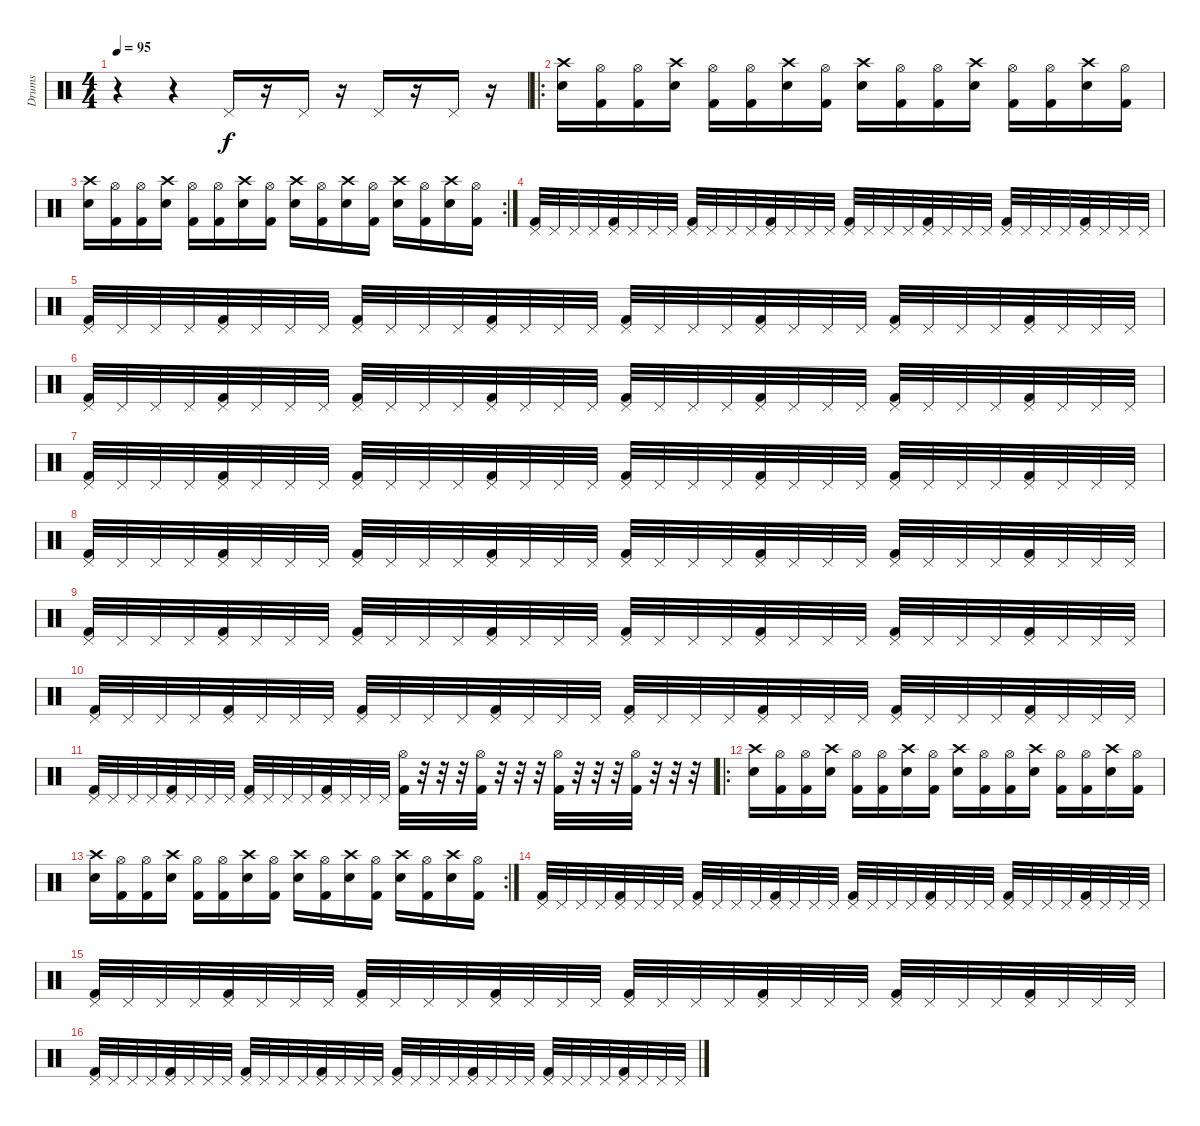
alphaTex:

\track ("Drums" "Drums") {instrument percussion}
\staff {score}
\articulation defaults
\ts (4 4)
\tempo 95
\clef neutral
\ks c
r.4{dy f} r.4 "Pedal Hi-Hat (hit)".16 r.16 "Pedal Hi-Hat (hit)".16 r.16 "Pedal Hi-Hat (hit)".16 r.16 "Pedal Hi-Hat (hit)".16 r.16 |
\ro
("Crash high (hit)" "Electric Snare (hit)").16 ("Hi-Hat (open)" "Kick (hit) 2").16 ("Hi-Hat (open)" "Kick (hit) 2").16 ("Crash high (hit)" "Electric Snare (hit)").16 ("Hi-Hat (open)" "Kick (hit) 2").16 ("Hi-Hat (open)" "Kick (hit) 2").16 ("Crash high (hit)" "Electric Snare (hit)").16 ("Hi-Hat (open)" "Kick (hit) 2").16 ("Crash high (hit)" "Electric Snare (hit)").16 ("Hi-Hat (open)" "Kick (hit) 2").16 ("Hi-Hat (open)" "Kick (hit) 2").16 ("Crash high (hit)" "Electric Snare (hit)").16 ("Hi-Hat (open)" "Kick (hit) 2").16 ("Hi-Hat (open)" "Kick (hit) 2").16 ("Crash high (hit)" "Electric Snare (hit)").16 ("Hi-Hat (open)" "Kick (hit) 2").16 |
\rc 2
("Crash high (hit)" "Electric Snare (hit)").16 ("Hi-Hat (open)" "Kick (hit) 2").16 ("Hi-Hat (open)" "Kick (hit) 2").16 ("Crash high (hit)" "Electric Snare (hit)").16 ("Hi-Hat (open)" "Kick (hit) 2").16 ("Hi-Hat (open)" "Kick (hit) 2").16 ("Crash high (hit)" "Electric Snare (hit)").16 ("Hi-Hat (open)" "Kick (hit) 2").16 ("Crash high (hit)" "Electric Snare (hit)").16 ("Hi-Hat (open)" "Kick (hit) 2").16 ("Crash high (hit)" "Electric Snare (hit)").16 ("Hi-Hat (open)" "Kick (hit) 2").16 ("Crash high (hit)" "Electric Snare (hit)").16 ("Hi-Hat (open)" "Kick (hit) 2").16 ("Crash high (hit)" "Electric Snare (hit)").16 ("Hi-Hat (open)" "Kick (hit) 2").16 |
("Pedal Hi-Hat (hit)" "Kick (hit) 2").32 "Pedal Hi-Hat (hit)".32 "Pedal Hi-Hat (hit)".32 "Pedal Hi-Hat (hit)".32 ("Pedal Hi-Hat (hit)" "Kick (hit) 2").32 "Pedal Hi-Hat (hit)".32 "Pedal Hi-Hat (hit)".32 "Pedal Hi-Hat (hit)".32 ("Pedal Hi-Hat (hit)" "Kick (hit) 2").32 "Pedal Hi-Hat (hit)".32 "Pedal Hi-Hat (hit)".32 "Pedal Hi-Hat (hit)".32 ("Pedal Hi-Hat (hit)" "Kick (hit) 2").32 "Pedal Hi-Hat (hit)".32 "Pedal Hi-Hat (hit)".32 "Pedal Hi-Hat (hit)".32 ("Pedal Hi-Hat (hit)" "Kick (hit) 2").32 "Pedal Hi-Hat (hit)".32 "Pedal Hi-Hat (hit)".32 "Pedal Hi-Hat (hit)".32 ("Pedal Hi-Hat (hit)" "Kick (hit) 2").32 "Pedal Hi-Hat (hit)".32 "Pedal Hi-Hat (hit)".32 "Pedal Hi-Hat (hit)".32 ("Pedal Hi-Hat (hit)" "Kick (hit) 2").32 "Pedal Hi-Hat (hit)".32 "Pedal Hi-Hat (hit)".32 "Pedal Hi-Hat (hit)".32 ("Pedal Hi-Hat (hit)" "Kick (hit) 2").32 "Pedal Hi-Hat (hit)".32 "Pedal Hi-Hat (hit)".32 "Pedal Hi-Hat (hit)".32 |
("Pedal Hi-Hat (hit)" "Kick (hit) 2").32 "Pedal Hi-Hat (hit)".32 "Pedal Hi-Hat (hit)".32 "Pedal Hi-Hat (hit)".32 ("Pedal Hi-Hat (hit)" "Kick (hit) 2").32 "Pedal Hi-Hat (hit)".32 "Pedal Hi-Hat (hit)".32 "Pedal Hi-Hat (hit)".32 ("Pedal Hi-Hat (hit)" "Kick (hit) 2").32 "Pedal Hi-Hat (hit)".32 "Pedal Hi-Hat (hit)".32 "Pedal Hi-Hat (hit)".32 ("Pedal Hi-Hat (hit)" "Kick (hit) 2").32 "Pedal Hi-Hat (hit)".32 "Pedal Hi-Hat (hit)".32 "Pedal Hi-Hat (hit)".32 ("Pedal Hi-Hat (hit)" "Kick (hit) 2").32 "Pedal Hi-Hat (hit)".32 "Pedal Hi-Hat (hit)".32 "Pedal Hi-Hat (hit)".32 ("Pedal Hi-Hat (hit)" "Kick (hit) 2").32 "Pedal Hi-Hat (hit)".32 "Pedal Hi-Hat (hit)".32 "Pedal Hi-Hat (hit)".32 ("Pedal Hi-Hat (hit)" "Kick (hit) 2").32 "Pedal Hi-Hat (hit)".32 "Pedal Hi-Hat (hit)".32 "Pedal Hi-Hat (hit)".32 ("Pedal Hi-Hat (hit)" "Kick (hit) 2").32 "Pedal Hi-Hat (hit)".32 "Pedal Hi-Hat (hit)".32 "Pedal Hi-Hat (hit)".32 |
("Pedal Hi-Hat (hit)" "Kick (hit) 2").32 "Pedal Hi-Hat (hit)".32 "Pedal Hi-Hat (hit)".32 "Pedal Hi-Hat (hit)".32 ("Pedal Hi-Hat (hit)" "Kick (hit) 2").32 "Pedal Hi-Hat (hit)".32 "Pedal Hi-Hat (hit)".32 "Pedal Hi-Hat (hit)".32 ("Pedal Hi-Hat (hit)" "Kick (hit) 2").32 "Pedal Hi-Hat (hit)".32 "Pedal Hi-Hat (hit)".32 "Pedal Hi-Hat (hit)".32 ("Pedal Hi-Hat (hit)" "Kick (hit) 2").32 "Pedal Hi-Hat (hit)".32 "Pedal Hi-Hat (hit)".32 "Pedal Hi-Hat (hit)".32 ("Pedal Hi-Hat (hit)" "Kick (hit) 2").32 "Pedal Hi-Hat (hit)".32 "Pedal Hi-Hat (hit)".32 "Pedal Hi-Hat (hit)".32 ("Pedal Hi-Hat (hit)" "Kick (hit) 2").32 "Pedal Hi-Hat (hit)".32 "Pedal Hi-Hat (hit)".32 "Pedal Hi-Hat (hit)".32 ("Pedal Hi-Hat (hit)" "Kick (hit) 2").32 "Pedal Hi-Hat (hit)".32 "Pedal Hi-Hat (hit)".32 "Pedal Hi-Hat (hit)".32 ("Pedal Hi-Hat (hit)" "Kick (hit) 2").32 "Pedal Hi-Hat (hit)".32 "Pedal Hi-Hat (hit)".32 "Pedal Hi-Hat (hit)".32 |
("Pedal Hi-Hat (hit)" "Kick (hit) 2").32 "Pedal Hi-Hat (hit)".32 "Pedal Hi-Hat (hit)".32 "Pedal Hi-Hat (hit)".32 ("Pedal Hi-Hat (hit)" "Kick (hit) 2").32 "Pedal Hi-Hat (hit)".32 "Pedal Hi-Hat (hit)".32 "Pedal Hi-Hat (hit)".32 ("Pedal Hi-Hat (hit)" "Kick (hit) 2").32 "Pedal Hi-Hat (hit)".32 "Pedal Hi-Hat (hit)".32 "Pedal Hi-Hat (hit)".32 ("Pedal Hi-Hat (hit)" "Kick (hit) 2").32 "Pedal Hi-Hat (hit)".32 "Pedal Hi-Hat (hit)".32 "Pedal Hi-Hat (hit)".32 ("Pedal Hi-Hat (hit)" "Kick (hit) 2").32 "Pedal Hi-Hat (hit)".32 "Pedal Hi-Hat (hit)".32 "Pedal Hi-Hat (hit)".32 ("Pedal Hi-Hat (hit)" "Kick (hit) 2").32 "Pedal Hi-Hat (hit)".32 "Pedal Hi-Hat (hit)".32 "Pedal Hi-Hat (hit)".32 ("Pedal Hi-Hat (hit)" "Kick (hit) 2").32 "Pedal Hi-Hat (hit)".32 "Pedal Hi-Hat (hit)".32 "Pedal Hi-Hat (hit)".32 ("Pedal Hi-Hat (hit)" "Kick (hit) 2").32 "Pedal Hi-Hat (hit)".32 "Pedal Hi-Hat (hit)".32 "Pedal Hi-Hat (hit)".32 |
("Pedal Hi-Hat (hit)" "Kick (hit) 2").32 "Pedal Hi-Hat (hit)".32 "Pedal Hi-Hat (hit)".32 "Pedal Hi-Hat (hit)".32 ("Pedal Hi-Hat (hit)" "Kick (hit) 2").32 "Pedal Hi-Hat (hit)".32 "Pedal Hi-Hat (hit)".32 "Pedal Hi-Hat (hit)".32 ("Pedal Hi-Hat (hit)" "Kick (hit) 2").32 "Pedal Hi-Hat (hit)".32 "Pedal Hi-Hat (hit)".32 "Pedal Hi-Hat (hit)".32 ("Pedal Hi-Hat (hit)" "Kick (hit) 2").32 "Pedal Hi-Hat (hit)".32 "Pedal Hi-Hat (hit)".32 "Pedal Hi-Hat (hit)".32 ("Pedal Hi-Hat (hit)" "Kick (hit) 2").32 "Pedal Hi-Hat (hit)".32 "Pedal Hi-Hat (hit)".32 "Pedal Hi-Hat (hit)".32 ("Pedal Hi-Hat (hit)" "Kick (hit) 2").32 "Pedal Hi-Hat (hit)".32 "Pedal Hi-Hat (hit)".32 "Pedal Hi-Hat (hit)".32 ("Pedal Hi-Hat (hit)" "Kick (hit) 2").32 "Pedal Hi-Hat (hit)".32 "Pedal Hi-Hat (hit)".32 "Pedal Hi-Hat (hit)".32 ("Pedal Hi-Hat (hit)" "Kick (hit) 2").32 "Pedal Hi-Hat (hit)".32 "Pedal Hi-Hat (hit)".32 "Pedal Hi-Hat (hit)".32 |
("Pedal Hi-Hat (hit)" "Kick (hit) 2").32 "Pedal Hi-Hat (hit)".32 "Pedal Hi-Hat (hit)".32 "Pedal Hi-Hat (hit)".32 ("Pedal Hi-Hat (hit)" "Kick (hit) 2").32 "Pedal Hi-Hat (hit)".32 "Pedal Hi-Hat (hit)".32 "Pedal Hi-Hat (hit)".32 ("Pedal Hi-Hat (hit)" "Kick (hit) 2").32 "Pedal Hi-Hat (hit)".32 "Pedal Hi-Hat (hit)".32 "Pedal Hi-Hat (hit)".32 ("Pedal Hi-Hat (hit)" "Kick (hit) 2").32 "Pedal Hi-Hat (hit)".32 "Pedal Hi-Hat (hit)".32 "Pedal Hi-Hat (hit)".32 ("Pedal Hi-Hat (hit)" "Kick (hit) 2").32 "Pedal Hi-Hat (hit)".32 "Pedal Hi-Hat (hit)".32 "Pedal Hi-Hat (hit)".32 ("Pedal Hi-Hat (hit)" "Kick (hit) 2").32 "Pedal Hi-Hat (hit)".32 "Pedal Hi-Hat (hit)".32 "Pedal Hi-Hat (hit)".32 ("Pedal Hi-Hat (hit)" "Kick (hit) 2").32 "Pedal Hi-Hat (hit)".32 "Pedal Hi-Hat (hit)".32 "Pedal Hi-Hat (hit)".32 ("Pedal Hi-Hat (hit)" "Kick (hit) 2").32 "Pedal Hi-Hat (hit)".32 "Pedal Hi-Hat (hit)".32 "Pedal Hi-Hat (hit)".32 |
("Pedal Hi-Hat (hit)" "Kick (hit) 2").32 "Pedal Hi-Hat (hit)".32 "Pedal Hi-Hat (hit)".32 "Pedal Hi-Hat (hit)".32 ("Pedal Hi-Hat (hit)" "Kick (hit) 2").32 "Pedal Hi-Hat (hit)".32 "Pedal Hi-Hat (hit)".32 "Pedal Hi-Hat (hit)".32 ("Pedal Hi-Hat (hit)" "Kick (hit) 2").32 "Pedal Hi-Hat (hit)".32 "Pedal Hi-Hat (hit)".32 "Pedal Hi-Hat (hit)".32 ("Pedal Hi-Hat (hit)" "Kick (hit) 2").32 "Pedal Hi-Hat (hit)".32 "Pedal Hi-Hat (hit)".32 "Pedal Hi-Hat (hit)".32 ("Pedal Hi-Hat (hit)" "Kick (hit) 2").32 "Pedal Hi-Hat (hit)".32 "Pedal Hi-Hat (hit)".32 "Pedal Hi-Hat (hit)".32 ("Pedal Hi-Hat (hit)" "Kick (hit) 2").32 "Pedal Hi-Hat (hit)".32 "Pedal Hi-Hat (hit)".32 "Pedal Hi-Hat (hit)".32 ("Pedal Hi-Hat (hit)" "Kick (hit) 2").32 "Pedal Hi-Hat (hit)".32 "Pedal Hi-Hat (hit)".32 "Pedal Hi-Hat (hit)".32 ("Pedal Hi-Hat (hit)" "Kick (hit) 2").32 "Pedal Hi-Hat (hit)".32 "Pedal Hi-Hat (hit)".32 "Pedal Hi-Hat (hit)".32 |
("Pedal Hi-Hat (hit)" "Kick (hit) 2").32 "Pedal Hi-Hat (hit)".32 "Pedal Hi-Hat (hit)".32 "Pedal Hi-Hat (hit)".32 ("Pedal Hi-Hat (hit)" "Kick (hit) 2").32 "Pedal Hi-Hat (hit)".32 "Pedal Hi-Hat (hit)".32 "Pedal Hi-Hat (hit)".32 ("Pedal Hi-Hat (hit)" "Kick (hit) 2").32 "Pedal Hi-Hat (hit)".32 "Pedal Hi-Hat (hit)".32 "Pedal Hi-Hat (hit)".32 ("Pedal Hi-Hat (hit)" "Kick (hit) 2").32 "Pedal Hi-Hat (hit)".32 "Pedal Hi-Hat (hit)".32 "Pedal Hi-Hat (hit)".32 ("Hi-Hat (open)" "Kick (hit) 2").32 r.32 r.32 r.32 ("Hi-Hat (open)" "Kick (hit) 2").32 r.32 r.32 r.32 ("Hi-Hat (open)" "Kick (hit) 2").32 r.32 r.32 r.32 ("Hi-Hat (open)" "Kick (hit) 2").32 r.32 r.32 r.32 |
\ro
("Crash high (hit)" "Electric Snare (hit)").16 ("Hi-Hat (open)" "Kick (hit) 2").16 ("Hi-Hat (open)" "Kick (hit) 2").16 ("Crash high (hit)" "Electric Snare (hit)").16 ("Hi-Hat (open)" "Kick (hit) 2").16 ("Hi-Hat (open)" "Kick (hit) 2").16 ("Crash high (hit)" "Electric Snare (hit)").16 ("Hi-Hat (open)" "Kick (hit) 2").16 ("Crash high (hit)" "Electric Snare (hit)").16 ("Hi-Hat (open)" "Kick (hit) 2").16 ("Hi-Hat (open)" "Kick (hit) 2").16 ("Crash high (hit)" "Electric Snare (hit)").16 ("Hi-Hat (open)" "Kick (hit) 2").16 ("Hi-Hat (open)" "Kick (hit) 2").16 ("Crash high (hit)" "Electric Snare (hit)").16 ("Hi-Hat (open)" "Kick (hit) 2").16 |
\rc 2
("Crash high (hit)" "Electric Snare (hit)").16 ("Hi-Hat (open)" "Kick (hit) 2").16 ("Hi-Hat (open)" "Kick (hit) 2").16 ("Crash high (hit)" "Electric Snare (hit)").16 ("Hi-Hat (open)" "Kick (hit) 2").16 ("Hi-Hat (open)" "Kick (hit) 2").16 ("Crash high (hit)" "Electric Snare (hit)").16 ("Hi-Hat (open)" "Kick (hit) 2").16 ("Crash high (hit)" "Electric Snare (hit)").16 ("Hi-Hat (open)" "Kick (hit) 2").16 ("Crash high (hit)" "Electric Snare (hit)").16 ("Hi-Hat (open)" "Kick (hit) 2").16 ("Crash high (hit)" "Electric Snare (hit)").16 ("Hi-Hat (open)" "Kick (hit) 2").16 ("Crash high (hit)" "Electric Snare (hit)").16 ("Hi-Hat (open)" "Kick (hit) 2").16 |
("Pedal Hi-Hat (hit)" "Kick (hit) 2").32 "Pedal Hi-Hat (hit)".32 "Pedal Hi-Hat (hit)".32 "Pedal Hi-Hat (hit)".32 ("Pedal Hi-Hat (hit)" "Kick (hit) 2").32 "Pedal Hi-Hat (hit)".32 "Pedal Hi-Hat (hit)".32 "Pedal Hi-Hat (hit)".32 ("Pedal Hi-Hat (hit)" "Kick (hit) 2").32 "Pedal Hi-Hat (hit)".32 "Pedal Hi-Hat (hit)".32 "Pedal Hi-Hat (hit)".32 ("Pedal Hi-Hat (hit)" "Kick (hit) 2").32 "Pedal Hi-Hat (hit)".32 "Pedal Hi-Hat (hit)".32 "Pedal Hi-Hat (hit)".32 ("Pedal Hi-Hat (hit)" "Kick (hit) 2").32 "Pedal Hi-Hat (hit)".32 "Pedal Hi-Hat (hit)".32 "Pedal Hi-Hat (hit)".32 ("Pedal Hi-Hat (hit)" "Kick (hit) 2").32 "Pedal Hi-Hat (hit)".32 "Pedal Hi-Hat (hit)".32 "Pedal Hi-Hat (hit)".32 ("Pedal Hi-Hat (hit)" "Kick (hit) 2").32 "Pedal Hi-Hat (hit)".32 "Pedal Hi-Hat (hit)".32 "Pedal Hi-Hat (hit)".32 ("Pedal Hi-Hat (hit)" "Kick (hit) 2").32 "Pedal Hi-Hat (hit)".32 "Pedal Hi-Hat (hit)".32 "Pedal Hi-Hat (hit)".32 |
("Pedal Hi-Hat (hit)" "Kick (hit) 2").32 "Pedal Hi-Hat (hit)".32 "Pedal Hi-Hat (hit)".32 "Pedal Hi-Hat (hit)".32 ("Pedal Hi-Hat (hit)" "Kick (hit) 2").32 "Pedal Hi-Hat (hit)".32 "Pedal Hi-Hat (hit)".32 "Pedal Hi-Hat (hit)".32 ("Pedal Hi-Hat (hit)" "Kick (hit) 2").32 "Pedal Hi-Hat (hit)".32 "Pedal Hi-Hat (hit)".32 "Pedal Hi-Hat (hit)".32 ("Pedal Hi-Hat (hit)" "Kick (hit) 2").32 "Pedal Hi-Hat (hit)".32 "Pedal Hi-Hat (hit)".32 "Pedal Hi-Hat (hit)".32 ("Pedal Hi-Hat (hit)" "Kick (hit) 2").32 "Pedal Hi-Hat (hit)".32 "Pedal Hi-Hat (hit)".32 "Pedal Hi-Hat (hit)".32 ("Pedal Hi-Hat (hit)" "Kick (hit) 2").32 "Pedal Hi-Hat (hit)".32 "Pedal Hi-Hat (hit)".32 "Pedal Hi-Hat (hit)".32 ("Pedal Hi-Hat (hit)" "Kick (hit) 2").32 "Pedal Hi-Hat (hit)".32 "Pedal Hi-Hat (hit)".32 "Pedal Hi-Hat (hit)".32 ("Pedal Hi-Hat (hit)" "Kick (hit) 2").32 "Pedal Hi-Hat (hit)".32 "Pedal Hi-Hat (hit)".32 "Pedal Hi-Hat (hit)".32 |
("Pedal Hi-Hat (hit)" "Kick (hit) 2").32 "Pedal Hi-Hat (hit)".32 "Pedal Hi-Hat (hit)".32 "Pedal Hi-Hat (hit)".32 ("Pedal Hi-Hat (hit)" "Kick (hit) 2").32 "Pedal Hi-Hat (hit)".32 "Pedal Hi-Hat (hit)".32 "Pedal Hi-Hat (hit)".32 ("Pedal Hi-Hat (hit)" "Kick (hit) 2").32 "Pedal Hi-Hat (hit)".32 "Pedal Hi-Hat (hit)".32 "Pedal Hi-Hat (hit)".32 ("Pedal Hi-Hat (hit)" "Kick (hit) 2").32 "Pedal Hi-Hat (hit)".32 "Pedal Hi-Hat (hit)".32 "Pedal Hi-Hat (hit)".32 ("Pedal Hi-Hat (hit)" "Kick (hit) 2").32 "Pedal Hi-Hat (hit)".32 "Pedal Hi-Hat (hit)".32 "Pedal Hi-Hat (hit)".32 ("Pedal Hi-Hat (hit)" "Kick (hit) 2").32 "Pedal Hi-Hat (hit)".32 "Pedal Hi-Hat (hit)".32 "Pedal Hi-Hat (hit)".32 ("Pedal Hi-Hat (hit)" "Kick (hit) 2").32 "Pedal Hi-Hat (hit)".32 "Pedal Hi-Hat (hit)".32 "Pedal Hi-Hat (hit)".32 ("Pedal Hi-Hat (hit)" "Kick (hit) 2").32 "Pedal Hi-Hat (hit)".32 "Pedal Hi-Hat (hit)".32 "Pedal Hi-Hat (hit)".32
